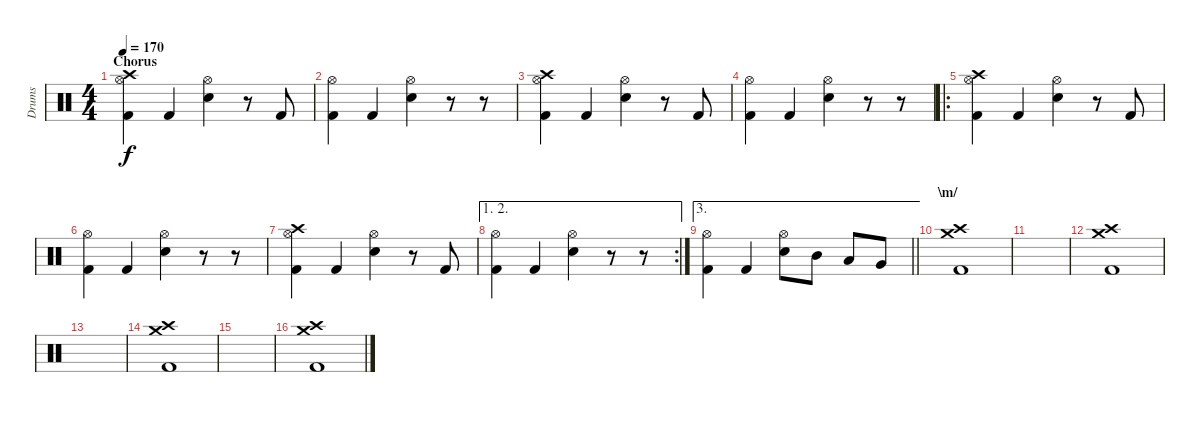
\track ("Drums" "Drums") {instrument percussion}
\staff {score}
\articulation defaults
\ts (4 4)
\section ("" "Chorus")
\tempo 170
\clef neutral
\ks c
("Hi-Hat (open)" "Crash high (hit)" "Kick (hit) 2").4{dy f} "Kick (hit) 2".4 ("Hi-Hat (open)" "Snare (hit) 2").4 r.8 "Kick (hit) 2".8 |
("Hi-Hat (open)" "Kick (hit) 2").4 "Kick (hit) 2".4 ("Hi-Hat (open)" "Snare (hit) 2").4 r.8 r.8 |
("Hi-Hat (open)" "Crash high (hit)" "Kick (hit) 2").4 "Kick (hit) 2".4 ("Hi-Hat (open)" "Snare (hit) 2").4 r.8 "Kick (hit) 2".8 |
("Hi-Hat (open)" "Kick (hit) 2").4 "Kick (hit) 2".4 ("Hi-Hat (open)" "Snare (hit) 2").4 r.8 r.8 |
\ro
("Hi-Hat (open)" "Crash high (hit)" "Kick (hit) 2").4 "Kick (hit) 2".4 ("Hi-Hat (open)" "Snare (hit) 2").4 r.8 "Kick (hit) 2".8 |
("Hi-Hat (open)" "Kick (hit) 2").4 "Kick (hit) 2".4 ("Hi-Hat (open)" "Snare (hit) 2").4 r.8 r.8 |
("Hi-Hat (open)" "Crash high (hit)" "Kick (hit) 2").4 "Kick (hit) 2".4 ("Hi-Hat (open)" "Snare (hit) 2").4 r.8 "Kick (hit) 2".8 |
\ae (1 2)
\rc 2
("Hi-Hat (open)" "Kick (hit) 2").4 "Kick (hit) 2".4 ("Hi-Hat (open)" "Snare (hit) 2").4 r.8 r.8 |
\ae 3
\barLineRight lightlight
("Hi-Hat (open)" "Kick (hit) 2").4 "Kick (hit) 2".4 ("Hi-Hat (open)" "Snare (hit) 2").8 "Mid Tom (hit)".8 "Low Tom (hit)".8 "Very Low Tom (hit)".8 |
\section ("" "\\m/")
("Crash medium (hit)" "Crash high (hit)" "Kick (hit) 2").1 |
|
("Crash medium (hit)" "Crash high (hit)" "Kick (hit) 2").1 |
|
("Crash medium (hit)" "Crash high (hit)" "Kick (hit) 2").1 |
|
("Crash medium (hit)" "Crash high (hit)" "Kick (hit) 2").1
